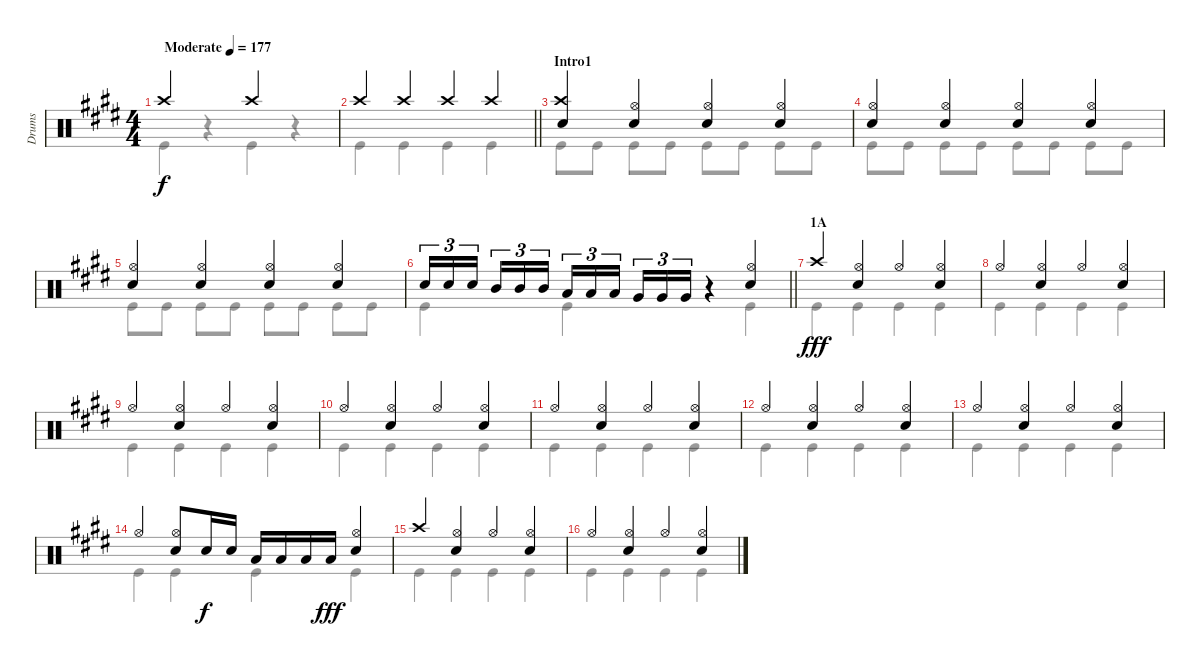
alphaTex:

\track ("Drums" "Drums") {instrument percussion}
\staff {score}
\articulation defaults
\voice
\ts (4 4)
\tempo (177 "Moderate")
\clef neutral
\ks e "Crash high (hit)".2{dy f} "Crash high (hit)".2
|
\barLineRight lightlight "Crash high (hit)".4 "Crash high (hit)".4 "Crash high (hit)".4 "Crash high (hit)".4
|
\section ("" "Intro1")
("Crash high (hit)" "Snare (hit) 2").4 ("Hi-Hat (open)" "Snare (hit) 2").4 ("Hi-Hat (open)" "Snare (hit) 2").4 ("Hi-Hat (open)" "Snare (hit) 2").4 |
("Hi-Hat (open)" "Snare (hit) 2").4 ("Hi-Hat (open)" "Snare (hit) 2").4 ("Hi-Hat (open)" "Snare (hit) 2").4 ("Hi-Hat (open)" "Snare (hit) 2").4 |
("Hi-Hat (open)" "Snare (hit) 2").4 ("Hi-Hat (open)" "Snare (hit) 2").4 ("Hi-Hat (open)" "Snare (hit) 2").4 ("Hi-Hat (open)" "Snare (hit) 2").4 |
\barLineRight lightlight "Snare (hit) 2".16{tu (3 2)} "Snare (hit) 2".16{tu (3 2)} "Snare (hit) 2".16{tu (3 2) beam splitsecondary} "Mid Tom (hit)".16{tu (3 2)} "Mid Tom (hit)".16{tu (3 2)} "Mid Tom (hit)".16{tu (3 2)} "Low Tom (hit)".16{tu (3 2)} "Low Tom (hit)".16{tu (3 2)} "Low Tom (hit)".16{tu (3 2) beam splitsecondary} "Very Low Tom (hit)".16{tu (3 2)} "Very Low Tom (hit)".16{tu (3 2)} "Very Low Tom (hit)".16{tu (3 2)}
r.4 ("Hi-Hat (open)" "Snare (hit) 2").4 |
\section ("" "1A")
"Crash high (hit)".4{dy fff} ("Hi-Hat (open)" "Snare (hit) 2").4 "Hi-Hat (open)".4 ("Hi-Hat (open)" "Snare (hit) 2").4 |
"Hi-Hat (open)".4 ("Hi-Hat (open)" "Snare (hit) 2").4 "Hi-Hat (open)".4 ("Hi-Hat (open)" "Snare (hit) 2").4 |
"Hi-Hat (open)".4 ("Hi-Hat (open)" "Snare (hit) 2").4 "Hi-Hat (open)".4 ("Hi-Hat (open)" "Snare (hit) 2").4 |
"Hi-Hat (open)".4 ("Hi-Hat (open)" "Snare (hit) 2").4 "Hi-Hat (open)".4 ("Hi-Hat (open)" "Snare (hit) 2").4 |
"Hi-Hat (open)".4 ("Hi-Hat (open)" "Snare (hit) 2").4 "Hi-Hat (open)".4 ("Hi-Hat (open)" "Snare (hit) 2").4 |
"Hi-Hat (open)".4 ("Hi-Hat (open)" "Snare (hit) 2").4 "Hi-Hat (open)".4 ("Hi-Hat (open)" "Snare (hit) 2").4 |
"Hi-Hat (open)".4 ("Hi-Hat (open)" "Snare (hit) 2").4 "Hi-Hat (open)".4 ("Hi-Hat (open)" "Snare (hit) 2").4 |
"Hi-Hat (open)".4 ("Hi-Hat (open)" "Snare (hit) 2").8 "Snare (hit) 2".16{dy f} "Snare (hit) 2".16 "Low Tom (hit)".16 "Low Tom (hit)".16 "Low Tom (hit)".16 "Low Tom (hit)".16{dy fff} ("Hi-Hat (open)" "Snare (hit) 2").4 |
"Crash high (hit)".4 ("Hi-Hat (open)" "Snare (hit) 2").4 "Hi-Hat (open)".4 ("Hi-Hat (open)" "Snare (hit) 2").4 |
"Hi-Hat (open)".4 ("Hi-Hat (open)" "Snare (hit) 2").4 "Hi-Hat (open)".4 ("Hi-Hat (open)" "Snare (hit) 2").4
\voice
\clef neutral
\ottava regular
\simile none
\ks e "Kick (hit)".4{dy f}
r.4 "Kick (hit)".4 r.4 |
\barLineRight lightlight "Kick (hit)".4 "Kick (hit)".4 "Kick (hit)".4 "Kick (hit)".4
|
"Kick (hit)".8 "Kick (hit)".8 "Kick (hit)".8 "Kick (hit)".8 "Kick (hit)".8 "Kick (hit)".8 "Kick (hit)".8 "Kick (hit)".8 |
"Kick (hit)".8 "Kick (hit)".8 "Kick (hit)".8 "Kick (hit)".8 "Kick (hit)".8 "Kick (hit)".8 "Kick (hit)".8 "Kick (hit)".8 |
"Kick (hit)".8 "Kick (hit)".8 "Kick (hit)".8 "Kick (hit)".8 "Kick (hit)".8 "Kick (hit)".8 "Kick (hit)".8 "Kick (hit)".8 |
\barLineRight lightlight "Kick (hit)".4 "Kick (hit)".4
r.4 "Kick (hit)".4 |
"Kick (hit)".4{dy fff} "Kick (hit)".4 "Kick (hit)".4 "Kick (hit)".4 |
"Kick (hit)".4 "Kick (hit)".4 "Kick (hit)".4 "Kick (hit)".4 |
"Kick (hit)".4 "Kick (hit)".4 "Kick (hit)".4 "Kick (hit)".4 |
"Kick (hit)".4 "Kick (hit)".4 "Kick (hit)".4 "Kick (hit)".4 |
"Kick (hit)".4 "Kick (hit)".4 "Kick (hit)".4 "Kick (hit)".4 |
"Kick (hit)".4 "Kick (hit)".4 "Kick (hit)".4 "Kick (hit)".4 |
"Kick (hit)".4 "Kick (hit)".4 "Kick (hit)".4 "Kick (hit)".4 |
"Kick (hit)".4 "Kick (hit)".4 "Kick (hit)".4 "Kick (hit)".4 |
"Kick (hit)".4 "Kick (hit)".4 "Kick (hit)".4 "Kick (hit)".4 |
"Kick (hit)".4 "Kick (hit)".4 "Kick (hit)".4 "Kick (hit)".4
